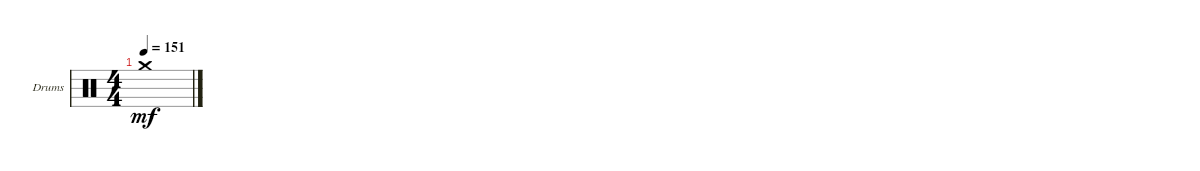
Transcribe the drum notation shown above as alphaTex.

\bracketExtendMode groupsimilarinstruments
\firstSystemTrackNameOrientation horizontal
\otherSystemsTrackNameOrientation horizontal
\track ("Drumkit" "Drums") {instrument percussion}
\staff {score}
\articulation defaults
\ts (4 4)
\tempo 151
\clef neutral
\ks aminor "Crash medium (hit)"{t}.1{dy mf}
